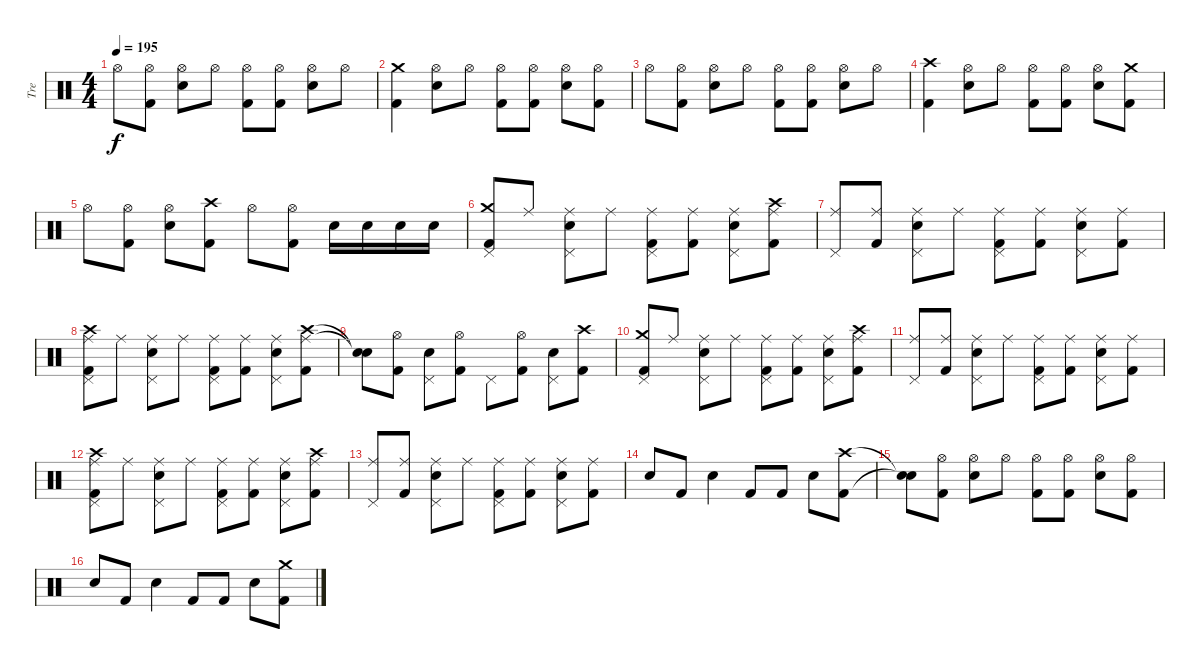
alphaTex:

\track ("Tre" "Tre") {instrument percussion}
\staff {score}
\articulation defaults
\ts (4 4)
\tempo 195
\clef neutral
\ks c "Hi-Hat (open)".8{dy f}
("Hi-Hat (open)" "Kick (hit) 2").8 ("Hi-Hat (open)" "Electric Snare (hit)").8 "Hi-Hat (open)".8 ("Hi-Hat (open)" "Kick (hit) 2").8 ("Hi-Hat (open)" "Kick (hit) 2").8 ("Hi-Hat (open)" "Electric Snare (hit)").8 "Hi-Hat (open)".8 |
("Crash medium (hit)" "Kick (hit) 2").4 ("Hi-Hat (open)" "Electric Snare (hit)").8 "Hi-Hat (open)".8 ("Hi-Hat (open)" "Kick (hit) 2").8 ("Hi-Hat (open)" "Kick (hit) 2").8 ("Hi-Hat (open)" "Electric Snare (hit)").8 ("Hi-Hat (open)" "Kick (hit) 2").8 |
"Hi-Hat (open)".8 ("Hi-Hat (open)" "Kick (hit) 2").8 ("Hi-Hat (open)" "Electric Snare (hit)").8 "Hi-Hat (open)".8 ("Hi-Hat (open)" "Kick (hit) 2").8 ("Hi-Hat (open)" "Kick (hit) 2").8 ("Hi-Hat (open)" "Electric Snare (hit)").8 "Hi-Hat (open)".8 |
("Crash high (hit)" "Kick (hit) 2").4 ("Hi-Hat (open)" "Electric Snare (hit)").8 "Hi-Hat (open)".8 ("Hi-Hat (open)" "Kick (hit) 2").8 ("Hi-Hat (open)" "Kick (hit) 2").8 ("Hi-Hat (open)" "Electric Snare (hit)").8 ("Crash medium (hit)" "Kick (hit) 2").8 |
"Hi-Hat (open)".8 ("Hi-Hat (open)" "Kick (hit) 2").8 ("Hi-Hat (open)" "Electric Snare (hit)").8 ("Crash high (hit)" "Kick (hit) 2").8 "Hi-Hat (open)".8 ("Hi-Hat (open)" "Kick (hit) 2").8 "Electric Snare (hit)".16 "Electric Snare (hit)".16 "Electric Snare (hit)".16 "Electric Snare (hit)".16 |
("Crash medium (hit)" "Pedal Hi-Hat (hit)" "Kick (hit) 2").8 "Ride (middle)".8 ("Pedal Hi-Hat (hit)" "Ride (middle)" "Electric Snare (hit)").8 "Ride (middle)".8 ("Pedal Hi-Hat (hit)" "Ride (middle)" "Kick (hit) 2").8 ("Ride (middle)" "Kick (hit) 2").8 ("Pedal Hi-Hat (hit)" "Ride (middle)" "Electric Snare (hit)").8 ("Crash high (hit)" "Ride (middle)" "Kick (hit) 2").8 |
("Pedal Hi-Hat (hit)" "Ride (middle)").8 ("Ride (middle)" "Kick (hit) 2").8 ("Pedal Hi-Hat (hit)" "Ride (middle)" "Electric Snare (hit)").8 "Ride (middle)".8 ("Pedal Hi-Hat (hit)" "Ride (middle)" "Kick (hit) 2").8 ("Ride (middle)" "Kick (hit) 2").8 ("Pedal Hi-Hat (hit)" "Ride (middle)" "Electric Snare (hit)").8 ("Ride (middle)" "Kick (hit) 2").8 |
("Crash high (hit)" "Pedal Hi-Hat (hit)" "Ride (middle)" "Kick (hit) 2").8 "Ride (middle)".8 ("Pedal Hi-Hat (hit)" "Ride (middle)" "Electric Snare (hit)").8 "Ride (middle)".8 ("Pedal Hi-Hat (hit)" "Ride (middle)" "Kick (hit) 2").8 ("Ride (middle)" "Kick (hit) 2").8 ("Pedal Hi-Hat (hit)" "Ride (middle)" "Electric Snare (hit)").8 ("Crash high (hit)" "Ride (middle)" "Kick (hit) 2").8 |
("Snare (hit)"{t} "Snare (hit)"{t}).8 ("Hi-Hat (open)" "Kick (hit) 2").8 ("Pedal Hi-Hat (hit)" "Electric Snare (hit)").8 ("Hi-Hat (open)" "Kick (hit) 2").8 "Pedal Hi-Hat (hit)".8 ("Hi-Hat (open)" "Kick (hit) 2").8 ("Pedal Hi-Hat (hit)" "Electric Snare (hit)").8 ("Crash high (hit)" "Kick (hit) 2").8 |
("Crash medium (hit)" "Pedal Hi-Hat (hit)" "Kick (hit) 2").8 "Ride (middle)".8 ("Pedal Hi-Hat (hit)" "Ride (middle)" "Electric Snare (hit)").8 "Ride (middle)".8 ("Pedal Hi-Hat (hit)" "Ride (middle)" "Kick (hit) 2").8 ("Ride (middle)" "Kick (hit) 2").8 ("Pedal Hi-Hat (hit)" "Ride (middle)" "Electric Snare (hit)").8 ("Crash high (hit)" "Ride (middle)" "Kick (hit) 2").8 |
("Pedal Hi-Hat (hit)" "Ride (middle)").8 ("Ride (middle)" "Kick (hit) 2").8 ("Pedal Hi-Hat (hit)" "Ride (middle)" "Electric Snare (hit)").8 "Ride (middle)".8 ("Pedal Hi-Hat (hit)" "Ride (middle)" "Kick (hit) 2").8 ("Ride (middle)" "Kick (hit) 2").8 ("Pedal Hi-Hat (hit)" "Ride (middle)" "Electric Snare (hit)").8 ("Ride (middle)" "Kick (hit) 2").8 |
("Crash high (hit)" "Pedal Hi-Hat (hit)" "Ride (middle)" "Kick (hit) 2").8 "Ride (middle)".8 ("Pedal Hi-Hat (hit)" "Ride (middle)" "Electric Snare (hit)").8 "Ride (middle)".8 ("Pedal Hi-Hat (hit)" "Ride (middle)" "Kick (hit) 2").8 ("Ride (middle)" "Kick (hit) 2").8 ("Pedal Hi-Hat (hit)" "Ride (middle)" "Electric Snare (hit)").8 ("Crash high (hit)" "Ride (middle)" "Kick (hit) 2").8 |
("Pedal Hi-Hat (hit)" "Ride (middle)").8 ("Ride (middle)" "Kick (hit) 2").8 ("Pedal Hi-Hat (hit)" "Ride (middle)" "Electric Snare (hit)").8 "Ride (middle)".8 ("Pedal Hi-Hat (hit)" "Ride (middle)" "Kick (hit) 2").8 ("Ride (middle)" "Kick (hit) 2").8 ("Pedal Hi-Hat (hit)" "Ride (middle)" "Electric Snare (hit)").8 ("Ride (middle)" "Kick (hit) 2").8 |
"Electric Snare (hit)".8 "Kick (hit) 2".8 "Electric Snare (hit)".4 "Kick (hit) 2".8 "Kick (hit) 2".8 "Electric Snare (hit)".8 ("Crash high (hit)" "Kick (hit) 2").8 |
("Snare (hit)"{t} "Snare (hit)"{t}).8 ("Hi-Hat (open)" "Kick (hit) 2").8 ("Hi-Hat (open)" "Electric Snare (hit)").8 "Hi-Hat (open)".8 ("Hi-Hat (open)" "Kick (hit) 2").8 ("Hi-Hat (open)" "Kick (hit) 2").8 ("Hi-Hat (open)" "Electric Snare (hit)").8 ("Hi-Hat (open)" "Kick (hit) 2").8 |
"Electric Snare (hit)".8 "Kick (hit) 2".8 "Electric Snare (hit)".4 "Kick (hit) 2".8 "Kick (hit) 2".8 "Electric Snare (hit)".8 ("Crash medium (hit)" "Kick (hit) 2").8
